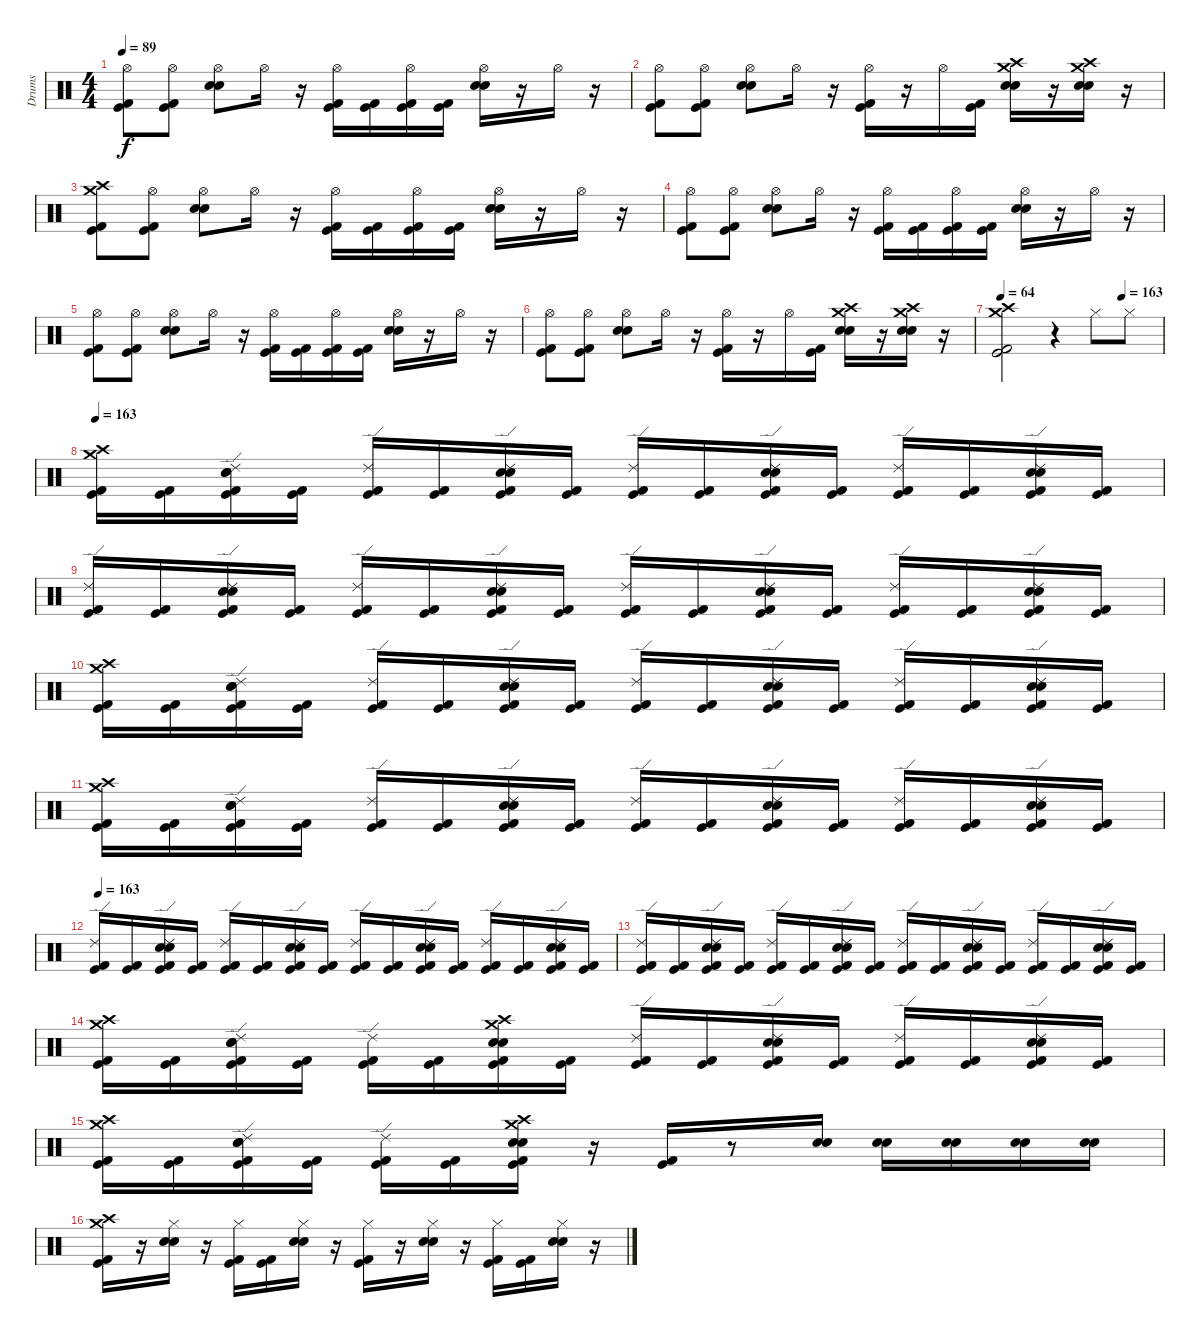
\track ("Drums" "Drums") {instrument percussion}
\staff {score}
\articulation defaults
\ts (4 4)
\tempo 89
\clef neutral
\ks c
("Hi-Hat (open)" "Kick (hit) 2" "Kick (hit)").8{dy f} ("Hi-Hat (open)" "Kick (hit) 2" "Kick (hit)").8 ("Hi-Hat (open)" "Electric Snare (hit)" "Snare (hit) 2").8 "Hi-Hat (open)".16 r.16 ("Hi-Hat (open)" "Kick (hit) 2" "Kick (hit)").16 ("Kick (hit) 2" "Kick (hit)").16 ("Hi-Hat (open)" "Kick (hit) 2" "Kick (hit)").16 ("Kick (hit) 2" "Kick (hit)").16 ("Hi-Hat (open)" "Electric Snare (hit)" "Snare (hit) 2").16 r.16 "Hi-Hat (open)".16 r.16 |
("Hi-Hat (open)" "Kick (hit) 2" "Kick (hit)").8 ("Hi-Hat (open)" "Kick (hit) 2" "Kick (hit)").8 ("Hi-Hat (open)" "Electric Snare (hit)" "Snare (hit) 2").8 "Hi-Hat (open)".16 r.16 ("Hi-Hat (open)" "Kick (hit) 2" "Kick (hit)").16 r.16 "Hi-Hat (open)".16 ("Kick (hit) 2" "Kick (hit)").16 ("Crash high (hit)" "Crash medium (hit)" "Electric Snare (hit)" "Snare (hit) 2").16 r.16 ("Crash high (hit)" "Electric Snare (hit)" "Snare (hit) 2" "Crash medium (hit)").16 r.16 |
("Crash medium (hit)" "Crash high (hit)" "Kick (hit) 2" "Kick (hit)").8 ("Hi-Hat (open)" "Kick (hit) 2" "Kick (hit)").8 ("Hi-Hat (open)" "Electric Snare (hit)" "Snare (hit) 2").8 "Hi-Hat (open)".16 r.16 ("Hi-Hat (open)" "Kick (hit) 2" "Kick (hit)").16 ("Kick (hit) 2" "Kick (hit)").16 ("Hi-Hat (open)" "Kick (hit) 2" "Kick (hit)").16 ("Kick (hit) 2" "Kick (hit)").16 ("Hi-Hat (open)" "Electric Snare (hit)" "Snare (hit) 2").16 r.16 "Hi-Hat (open)".16 r.16 |
("Hi-Hat (open)" "Kick (hit) 2" "Kick (hit)").8 ("Hi-Hat (open)" "Kick (hit) 2" "Kick (hit)").8 ("Hi-Hat (open)" "Electric Snare (hit)" "Snare (hit) 2").8 "Hi-Hat (open)".16 r.16 ("Hi-Hat (open)" "Kick (hit) 2" "Kick (hit)").16 ("Kick (hit) 2" "Kick (hit)").16 ("Hi-Hat (open)" "Kick (hit) 2" "Kick (hit)").16 ("Kick (hit) 2" "Kick (hit)").16 ("Hi-Hat (open)" "Electric Snare (hit)" "Snare (hit) 2").16 r.16 "Hi-Hat (open)".16 r.16 |
("Hi-Hat (open)" "Kick (hit) 2" "Kick (hit)").8 ("Hi-Hat (open)" "Kick (hit) 2" "Kick (hit)").8 ("Hi-Hat (open)" "Electric Snare (hit)" "Snare (hit) 2").8 "Hi-Hat (open)".16 r.16 ("Hi-Hat (open)" "Kick (hit) 2" "Kick (hit)").16 ("Kick (hit) 2" "Kick (hit)").16 ("Hi-Hat (open)" "Kick (hit) 2" "Kick (hit)").16 ("Kick (hit) 2" "Kick (hit)").16 ("Hi-Hat (open)" "Electric Snare (hit)" "Snare (hit) 2").16 r.16 "Hi-Hat (open)".16 r.16 |
("Hi-Hat (open)" "Kick (hit) 2" "Kick (hit)").8 ("Hi-Hat (open)" "Kick (hit) 2" "Kick (hit)").8 ("Hi-Hat (open)" "Electric Snare (hit)" "Snare (hit) 2").8 "Hi-Hat (open)".16 r.16 ("Hi-Hat (open)" "Kick (hit) 2" "Kick (hit)").16 r.16 "Hi-Hat (open)".16 ("Kick (hit) 2" "Kick (hit)").16 ("Crash high (hit)" "Crash medium (hit)" "Electric Snare (hit)" "Snare (hit) 2").16 r.16 ("Crash high (hit)" "Electric Snare (hit)" "Snare (hit) 2" "Crash medium (hit)").16 r.16 |
\tempo 64
\tempo (163 0.75)
("Kick (hit) 2" "Kick (hit)" "Crash high (hit)" "Crash medium (hit)").2 r.4 "Hi-Hat (closed)".8 "Hi-Hat (closed)".8 |
\tempo 163
("Crash high (hit)" "Crash medium (hit)" "Kick (hit) 2" "Kick (hit)").16 ("Kick (hit) 2" "Kick (hit)").16 ("Electric Snare (hit)" "Snare (hit) 2" "Ride (edge) 2" "Kick (hit) 2" "Kick (hit)").16 ("Kick (hit) 2" "Kick (hit)").16 ("Ride (edge) 2" "Kick (hit) 2" "Kick (hit)").16 ("Kick (hit) 2" "Kick (hit)").16 ("Electric Snare (hit)" "Snare (hit) 2" "Ride (edge) 2" "Kick (hit)" "Kick (hit) 2").16 ("Kick (hit) 2" "Kick (hit)").16 ("Ride (edge) 2" "Kick (hit) 2" "Kick (hit)").16 ("Kick (hit) 2" "Kick (hit)").16 ("Electric Snare (hit)" "Snare (hit) 2" "Ride (edge) 2" "Kick (hit) 2" "Kick (hit)").16 ("Kick (hit) 2" "Kick (hit)").16 ("Ride (edge) 2" "Kick (hit) 2" "Kick (hit)").16 ("Kick (hit) 2" "Kick (hit)").16 ("Electric Snare (hit)" "Snare (hit) 2" "Ride (edge) 2" "Kick (hit) 2" "Kick (hit)").16 ("Kick (hit) 2" "Kick (hit)").16 |
("Ride (edge) 2" "Kick (hit) 2" "Kick (hit)").16 ("Kick (hit) 2" "Kick (hit)").16 ("Electric Snare (hit)" "Snare (hit) 2" "Ride (edge) 2" "Kick (hit) 2" "Kick (hit)").16 ("Kick (hit) 2" "Kick (hit)").16 ("Ride (edge) 2" "Kick (hit) 2" "Kick (hit)").16 ("Kick (hit) 2" "Kick (hit)").16 ("Electric Snare (hit)" "Snare (hit) 2" "Ride (edge) 2" "Kick (hit)" "Kick (hit) 2").16 ("Kick (hit) 2" "Kick (hit)").16 ("Ride (edge) 2" "Kick (hit) 2" "Kick (hit)").16 ("Kick (hit) 2" "Kick (hit)").16 ("Electric Snare (hit)" "Snare (hit) 2" "Ride (edge) 2" "Kick (hit) 2" "Kick (hit)").16 ("Kick (hit) 2" "Kick (hit)").16 ("Ride (edge) 2" "Kick (hit) 2" "Kick (hit)").16 ("Kick (hit) 2" "Kick (hit)").16 ("Electric Snare (hit)" "Snare (hit) 2" "Ride (edge) 2" "Kick (hit) 2" "Kick (hit)").16 ("Kick (hit) 2" "Kick (hit)").16 |
("Crash high (hit)" "Crash medium (hit)" "Kick (hit) 2" "Kick (hit)").16 ("Kick (hit) 2" "Kick (hit)").16 ("Electric Snare (hit)" "Snare (hit) 2" "Ride (edge) 2" "Kick (hit) 2" "Kick (hit)").16 ("Kick (hit) 2" "Kick (hit)").16 ("Ride (edge) 2" "Kick (hit) 2" "Kick (hit)").16 ("Kick (hit) 2" "Kick (hit)").16 ("Electric Snare (hit)" "Snare (hit) 2" "Ride (edge) 2" "Kick (hit)" "Kick (hit) 2").16 ("Kick (hit) 2" "Kick (hit)").16 ("Ride (edge) 2" "Kick (hit) 2" "Kick (hit)").16 ("Kick (hit) 2" "Kick (hit)").16 ("Electric Snare (hit)" "Snare (hit) 2" "Ride (edge) 2" "Kick (hit) 2" "Kick (hit)").16 ("Kick (hit) 2" "Kick (hit)").16 ("Ride (edge) 2" "Kick (hit) 2" "Kick (hit)").16 ("Kick (hit) 2" "Kick (hit)").16 ("Electric Snare (hit)" "Snare (hit) 2" "Ride (edge) 2" "Kick (hit) 2" "Kick (hit)").16 ("Kick (hit) 2" "Kick (hit)").16 |
("Crash high (hit)" "Crash medium (hit)" "Kick (hit) 2" "Kick (hit)").16 ("Kick (hit) 2" "Kick (hit)").16 ("Electric Snare (hit)" "Snare (hit) 2" "Ride (edge) 2" "Kick (hit) 2" "Kick (hit)").16 ("Kick (hit) 2" "Kick (hit)").16 ("Ride (edge) 2" "Kick (hit) 2" "Kick (hit)").16 ("Kick (hit) 2" "Kick (hit)").16 ("Electric Snare (hit)" "Snare (hit) 2" "Ride (edge) 2" "Kick (hit)" "Kick (hit) 2").16 ("Kick (hit) 2" "Kick (hit)").16 ("Ride (edge) 2" "Kick (hit) 2" "Kick (hit)").16 ("Kick (hit) 2" "Kick (hit)").16 ("Electric Snare (hit)" "Snare (hit) 2" "Ride (edge) 2" "Kick (hit) 2" "Kick (hit)").16 ("Kick (hit) 2" "Kick (hit)").16 ("Ride (edge) 2" "Kick (hit) 2" "Kick (hit)").16 ("Kick (hit) 2" "Kick (hit)").16 ("Electric Snare (hit)" "Snare (hit) 2" "Ride (edge) 2" "Kick (hit) 2" "Kick (hit)").16 ("Kick (hit) 2" "Kick (hit)").16 |
\tempo 163
("Ride (edge) 2" "Kick (hit) 2" "Kick (hit)").16 ("Kick (hit) 2" "Kick (hit)").16 ("Electric Snare (hit)" "Snare (hit) 2" "Ride (edge) 2" "Kick (hit) 2" "Kick (hit)").16 ("Kick (hit) 2" "Kick (hit)").16 ("Ride (edge) 2" "Kick (hit) 2" "Kick (hit)").16 ("Kick (hit) 2" "Kick (hit)").16 ("Electric Snare (hit)" "Snare (hit) 2" "Ride (edge) 2" "Kick (hit)" "Kick (hit) 2").16 ("Kick (hit) 2" "Kick (hit)").16 ("Ride (edge) 2" "Kick (hit) 2" "Kick (hit)").16 ("Kick (hit) 2" "Kick (hit)").16 ("Electric Snare (hit)" "Snare (hit) 2" "Ride (edge) 2" "Kick (hit) 2" "Kick (hit)").16 ("Kick (hit) 2" "Kick (hit)").16 ("Ride (edge) 2" "Kick (hit) 2" "Kick (hit)").16 ("Kick (hit) 2" "Kick (hit)").16 ("Electric Snare (hit)" "Snare (hit) 2" "Ride (edge) 2" "Kick (hit) 2" "Kick (hit)").16 ("Kick (hit) 2" "Kick (hit)").16 |
("Ride (edge) 2" "Kick (hit) 2" "Kick (hit)").16 ("Kick (hit) 2" "Kick (hit)").16 ("Electric Snare (hit)" "Snare (hit) 2" "Ride (edge) 2" "Kick (hit) 2" "Kick (hit)").16 ("Kick (hit) 2" "Kick (hit)").16 ("Ride (edge) 2" "Kick (hit) 2" "Kick (hit)").16 ("Kick (hit) 2" "Kick (hit)").16 ("Electric Snare (hit)" "Snare (hit) 2" "Ride (edge) 2" "Kick (hit)" "Kick (hit) 2").16 ("Kick (hit) 2" "Kick (hit)").16 ("Ride (edge) 2" "Kick (hit) 2" "Kick (hit)").16 ("Kick (hit) 2" "Kick (hit)").16 ("Electric Snare (hit)" "Snare (hit) 2" "Ride (edge) 2" "Kick (hit) 2" "Kick (hit)").16 ("Kick (hit) 2" "Kick (hit)").16 ("Ride (edge) 2" "Kick (hit) 2" "Kick (hit)").16 ("Kick (hit) 2" "Kick (hit)").16 ("Electric Snare (hit)" "Snare (hit) 2" "Ride (edge) 2" "Kick (hit) 2" "Kick (hit)").16 ("Kick (hit) 2" "Kick (hit)").16 |
("Crash high (hit)" "Crash medium (hit)" "Kick (hit) 2" "Kick (hit)").16 ("Kick (hit) 2" "Kick (hit)").16 ("Electric Snare (hit)" "Snare (hit) 2" "Ride (edge) 2" "Kick (hit) 2" "Kick (hit)").16 ("Kick (hit) 2" "Kick (hit)").16 ("Ride (edge) 2" "Kick (hit) 2" "Kick (hit)").16 ("Kick (hit) 2" "Kick (hit)").16 ("Crash high (hit)" "Crash medium (hit)" "Electric Snare (hit)" "Snare (hit) 2" "Kick (hit)" "Kick (hit) 2").16 ("Kick (hit) 2" "Kick (hit)").16 ("Ride (edge) 2" "Kick (hit) 2" "Kick (hit)").16 ("Kick (hit) 2" "Kick (hit)").16 ("Electric Snare (hit)" "Snare (hit) 2" "Ride (edge) 2" "Kick (hit) 2" "Kick (hit)").16 ("Kick (hit) 2" "Kick (hit)").16 ("Ride (edge) 2" "Kick (hit) 2" "Kick (hit)").16 ("Kick (hit) 2" "Kick (hit)").16 ("Electric Snare (hit)" "Snare (hit) 2" "Ride (edge) 2" "Kick (hit) 2" "Kick (hit)").16 ("Kick (hit) 2" "Kick (hit)").16 |
("Crash high (hit)" "Crash medium (hit)" "Kick (hit) 2" "Kick (hit)").16 ("Kick (hit) 2" "Kick (hit)").16 ("Electric Snare (hit)" "Snare (hit) 2" "Ride (edge) 2" "Kick (hit) 2" "Kick (hit)").16 ("Kick (hit) 2" "Kick (hit)").16 ("Ride (edge) 2" "Kick (hit) 2" "Kick (hit)").16 ("Kick (hit) 2" "Kick (hit)").16 ("Crash high (hit)" "Crash medium (hit)" "Electric Snare (hit)" "Snare (hit) 2" "Kick (hit)" "Kick (hit) 2").16 r.16 ("Kick (hit) 2" "Kick (hit)").16 r.8 ("Electric Snare (hit)" "Snare (hit) 2").16 ("Electric Snare (hit)" "Snare (hit) 2").16 ("Electric Snare (hit)" "Snare (hit) 2").16 ("Electric Snare (hit)" "Snare (hit) 2").16 ("Electric Snare (hit)" "Snare (hit) 2").16 |
("Crash high (hit)" "Crash medium (hit)" "Kick (hit) 2" "Kick (hit)").16 r.16 ("Hi-Hat (closed)" "Electric Snare (hit)" "Snare (hit) 2").16 r.16 ("Kick (hit)" "Kick (hit) 2" "Hi-Hat (closed)").16 ("Kick (hit)" "Kick (hit) 2").16 ("Electric Snare (hit)" "Snare (hit) 2" "Hi-Hat (closed)").16 r.16 ("Kick (hit)" "Kick (hit) 2" "Hi-Hat (closed)").16 r.16 ("Electric Snare (hit)" "Snare (hit) 2" "Hi-Hat (closed)").16 r.16 ("Kick (hit) 2" "Kick (hit)" "Hi-Hat (closed)").16 ("Kick (hit) 2" "Kick (hit)").16 ("Electric Snare (hit)" "Snare (hit) 2" "Hi-Hat (closed)").16 r.16
